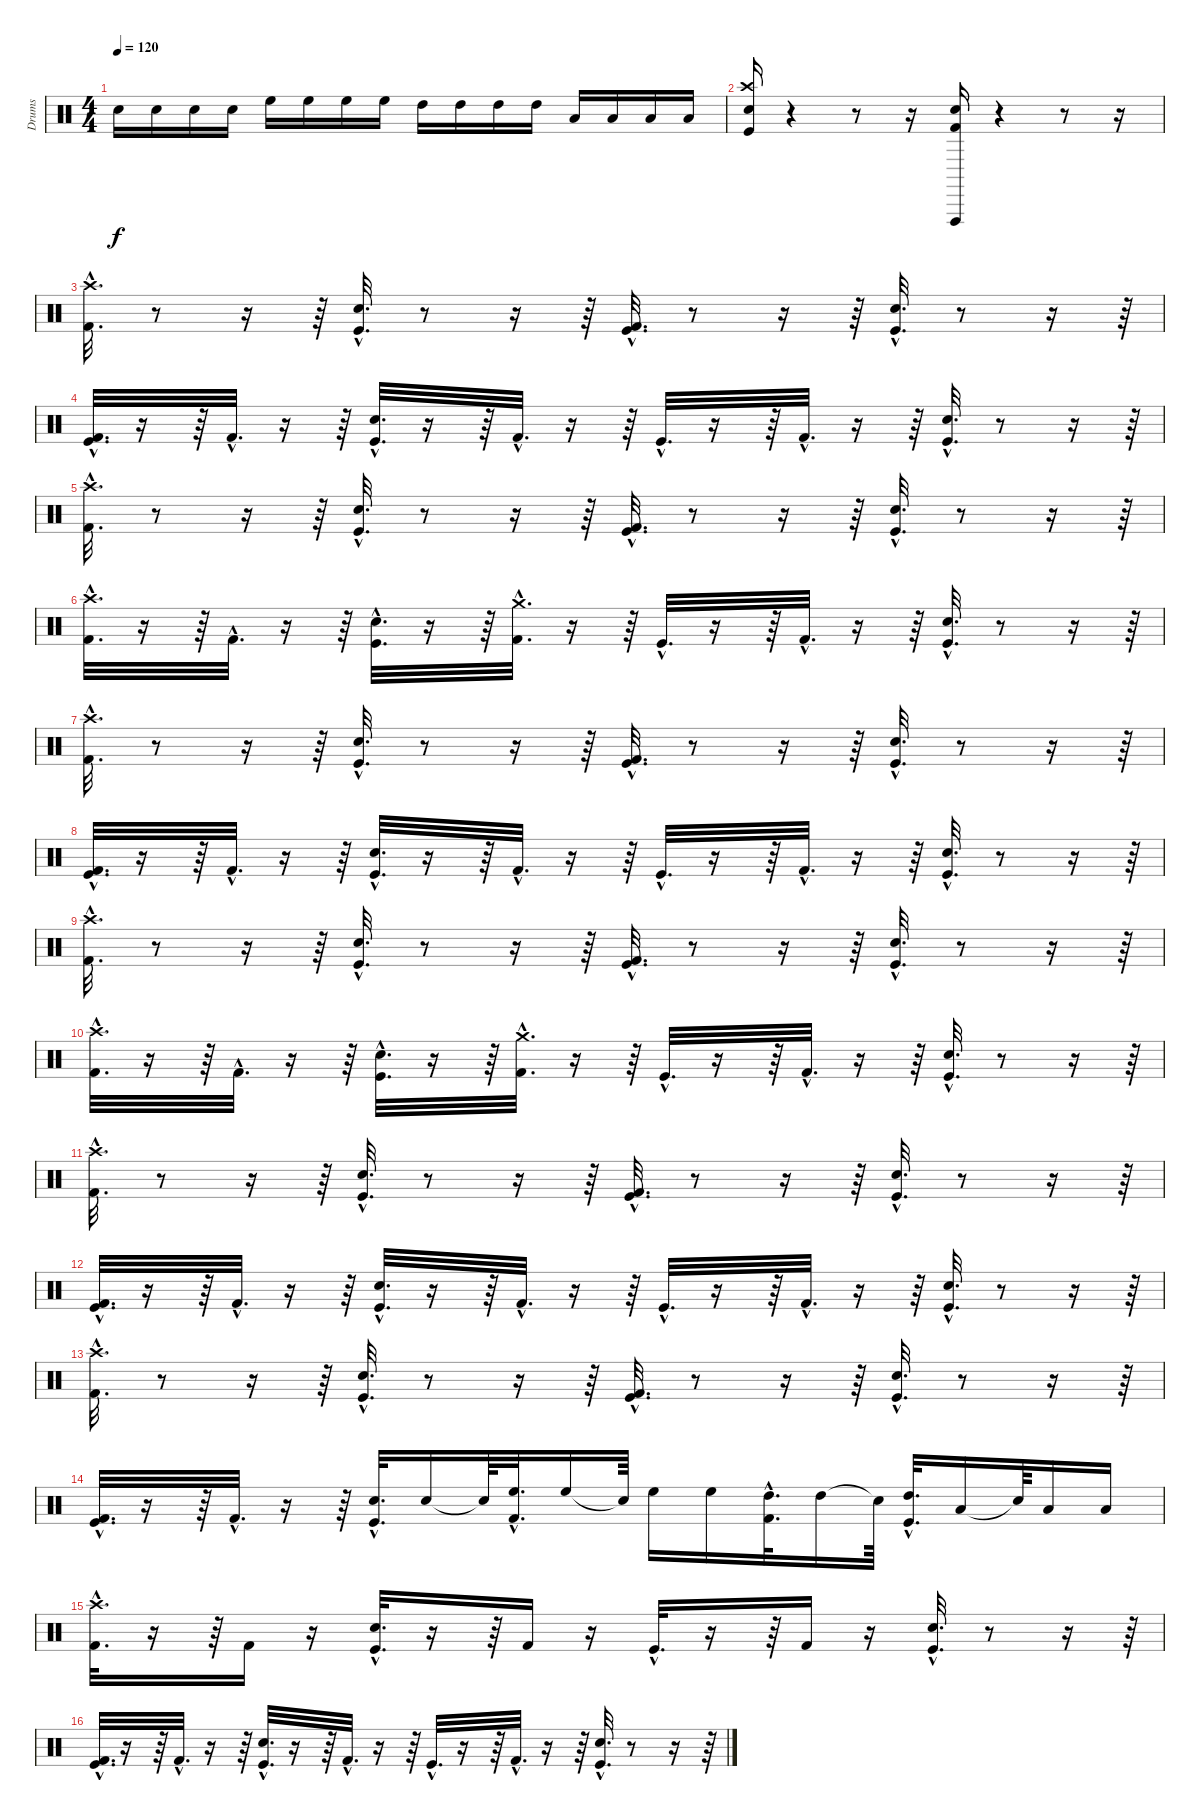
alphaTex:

\track ("Drums" "Drums") {instrument percussion}
\staff {score}
\articulation defaults
\ts (4 4)
\tempo 120
\clef neutral
\ks c "Snare (hit) 2".16{dy f} "Snare (hit) 2".16 "Snare (hit) 2".16 "Snare (hit) 2".16 "High Floor Tom (hit)".16 "High Floor Tom (hit)".16 "High Floor Tom (hit)".16 "High Floor Tom (hit)".16 "High Tom (hit)".16 "High Tom (hit)".16 "High Tom (hit)".16 "High Tom (hit)".16 "Low Tom (hit)".16 "Low Tom (hit)".16 "Low Tom (hit)".16 "Low Tom (hit)".16
|
("Crash high (hit)" "Kick (hit)" "Snare (hit) 2").16 r.4 r.8 r.16 ("Vibraslap (hit)" "Kick (hit) 2" "Snare (hit) 2").16 r.4 r.8 r.16 |
("Kick (hit) 2"{hac} "Crash high (hit)"{hac}).32{d} r.8 r.16 r.64 ("Kick (hit)"{hac} "Snare (hit) 2"{hac}).32{d} r.8 r.16 r.64 ("Kick (hit)"{hac} "Kick (hit) 2"{hac}).32{d} r.8 r.16 r.64 ("Kick (hit)"{hac} "Snare (hit) 2"{hac}).32{d} r.8 r.16 r.64 |
("Kick (hit)"{hac} "Kick (hit) 2"{hac}).32{d} r.16 r.64 "Kick (hit) 2"{hac}.32{d} r.16 r.64 ("Snare (hit) 2"{hac} "Kick (hit)"{hac}).32{d} r.16 r.64 "Kick (hit) 2"{hac}.32{d} r.16 r.64 "Kick (hit)"{hac}.32{d} r.16 r.64 "Kick (hit) 2"{hac}.32{d} r.16 r.64 ("Snare (hit) 2"{hac} "Kick (hit)"{hac}).32{d} r.8 r.16 r.64 |
("Kick (hit) 2"{hac} "Crash high (hit)"{hac}).32{d} r.8 r.16 r.64 ("Kick (hit)"{hac} "Snare (hit) 2"{hac}).32{d} r.8 r.16 r.64 ("Kick (hit)"{hac} "Kick (hit) 2"{hac}).32{d} r.8 r.16 r.64 ("Kick (hit)"{hac} "Snare (hit) 2"{hac}).32{d} r.8 r.16 r.64 |
("Crash high (hit)"{hac} "Kick (hit) 2"{hac}).32{d} r.16 r.64 "Kick (hit) 2"{hac}.32{d} r.16 r.64 ("Kick (hit)"{hac} "Snare (hit) 2"{hac}).32{d} r.16 r.64 ("Crash medium (hit)"{hac} "Kick (hit) 2"{hac}).32{d} r.16 r.64 "Kick (hit)"{hac}.32{d} r.16 r.64 "Kick (hit) 2"{hac}.32{d} r.16 r.64 ("Kick (hit)"{hac} "Snare (hit) 2"{hac}).32{d} r.8 r.16 r.64 |
("Kick (hit) 2"{hac} "Crash high (hit)"{hac}).32{d} r.8 r.16 r.64 ("Kick (hit)"{hac} "Snare (hit) 2"{hac}).32{d} r.8 r.16 r.64 ("Kick (hit)"{hac} "Kick (hit) 2"{hac}).32{d} r.8 r.16 r.64 ("Kick (hit)"{hac} "Snare (hit) 2"{hac}).32{d} r.8 r.16 r.64 |
("Kick (hit)"{hac} "Kick (hit) 2"{hac}).32{d} r.16 r.64 "Kick (hit) 2"{hac}.32{d} r.16 r.64 ("Snare (hit) 2"{hac} "Kick (hit)"{hac}).32{d} r.16 r.64 "Kick (hit) 2"{hac}.32{d} r.16 r.64 "Kick (hit)"{hac}.32{d} r.16 r.64 "Kick (hit) 2"{hac}.32{d} r.16 r.64 ("Snare (hit) 2"{hac} "Kick (hit)"{hac}).32{d} r.8 r.16 r.64 |
("Kick (hit) 2"{hac} "Crash high (hit)"{hac}).32{d} r.8 r.16 r.64 ("Kick (hit)"{hac} "Snare (hit) 2"{hac}).32{d} r.8 r.16 r.64 ("Kick (hit)"{hac} "Kick (hit) 2"{hac}).32{d} r.8 r.16 r.64 ("Kick (hit)"{hac} "Snare (hit) 2"{hac}).32{d} r.8 r.16 r.64 |
("Crash high (hit)"{hac} "Kick (hit) 2"{hac}).32{d} r.16 r.64 "Kick (hit) 2"{hac}.32{d} r.16 r.64 ("Kick (hit)"{hac} "Snare (hit) 2"{hac}).32{d} r.16 r.64 ("Crash medium (hit)"{hac} "Kick (hit) 2"{hac}).32{d} r.16 r.64 "Kick (hit)"{hac}.32{d} r.16 r.64 "Kick (hit) 2"{hac}.32{d} r.16 r.64 ("Kick (hit)"{hac} "Snare (hit) 2"{hac}).32{d} r.8 r.16 r.64 |
("Kick (hit) 2"{hac} "Crash high (hit)"{hac}).32{d} r.8 r.16 r.64 ("Kick (hit)"{hac} "Snare (hit) 2"{hac}).32{d} r.8 r.16 r.64 ("Kick (hit)"{hac} "Kick (hit) 2"{hac}).32{d} r.8 r.16 r.64 ("Kick (hit)"{hac} "Snare (hit) 2"{hac}).32{d} r.8 r.16 r.64 |
("Kick (hit)"{hac} "Kick (hit) 2"{hac}).32{d} r.16 r.64 "Kick (hit) 2"{hac}.32{d} r.16 r.64 ("Snare (hit) 2"{hac} "Kick (hit)"{hac}).32{d} r.16 r.64 "Kick (hit) 2"{hac}.32{d} r.16 r.64 "Kick (hit)"{hac}.32{d} r.16 r.64 "Kick (hit) 2"{hac}.32{d} r.16 r.64 ("Snare (hit) 2"{hac} "Kick (hit)"{hac}).32{d} r.8 r.16 r.64 |
("Kick (hit) 2"{hac} "Crash high (hit)"{hac}).32{d} r.8 r.16 r.64 ("Kick (hit)"{hac} "Snare (hit) 2"{hac}).32{d} r.8 r.16 r.64 ("Kick (hit)"{hac} "Kick (hit) 2"{hac}).32{d} r.8 r.16 r.64 ("Kick (hit)"{hac} "Snare (hit) 2"{hac}).32{d} r.8 r.16 r.64 |
("Kick (hit)"{hac} "Kick (hit) 2"{hac}).32{d} r.16 r.64 "Kick (hit) 2"{hac}.32{d} r.16 r.64 ("Snare (hit) 2"{hac} "Kick (hit)"{hac}).32{d} "Snare (hit) 2".16 "Snare (hit)"{t}.64 ("High Floor Tom (hit)"{hac} "Kick (hit) 2"{hac}).32{d} "High Floor Tom (hit)".16 "Snare (hit)"{t}.64 "High Floor Tom (hit)".16 "High Floor Tom (hit)".16 ("High Tom (hit)"{hac} "Kick (hit) 2"{hac}).32{d} "High Tom (hit)".16 "Snare (hit)"{t}.64 ("Kick (hit)"{hac} "High Tom (hit)"{hac}).32{d} "Low Tom (hit)".16 "Snare (hit)"{t}.64 "Low Tom (hit)".16 "Low Floor Tom (hit)".16 |
("Kick (hit) 2"{hac} "Crash high (hit)"{hac}).32{d} r.16 r.64 "Kick (hit) 2".16 r.16 ("Kick (hit)"{hac} "Snare (hit) 2"{hac}).32{d} r.16 r.64 "Kick (hit) 2".16 r.16 "Kick (hit)"{hac}.32{d} r.16 r.64 "Kick (hit) 2".16 r.16 ("Kick (hit)"{hac} "Snare (hit) 2"{hac}).32{d} r.8 r.16 r.64 |
("Kick (hit)"{hac} "Kick (hit) 2"{hac}).32{d} r.16 r.64 "Kick (hit) 2"{hac}.32{d} r.16 r.64 ("Snare (hit) 2"{hac} "Kick (hit)"{hac}).32{d} r.16 r.64 "Kick (hit) 2"{hac}.32{d} r.16 r.64 "Kick (hit)"{hac}.32{d} r.16 r.64 "Kick (hit) 2"{hac}.32{d} r.16 r.64 ("Snare (hit) 2"{hac} "Kick (hit)"{hac}).32{d} r.8 r.16 r.64
